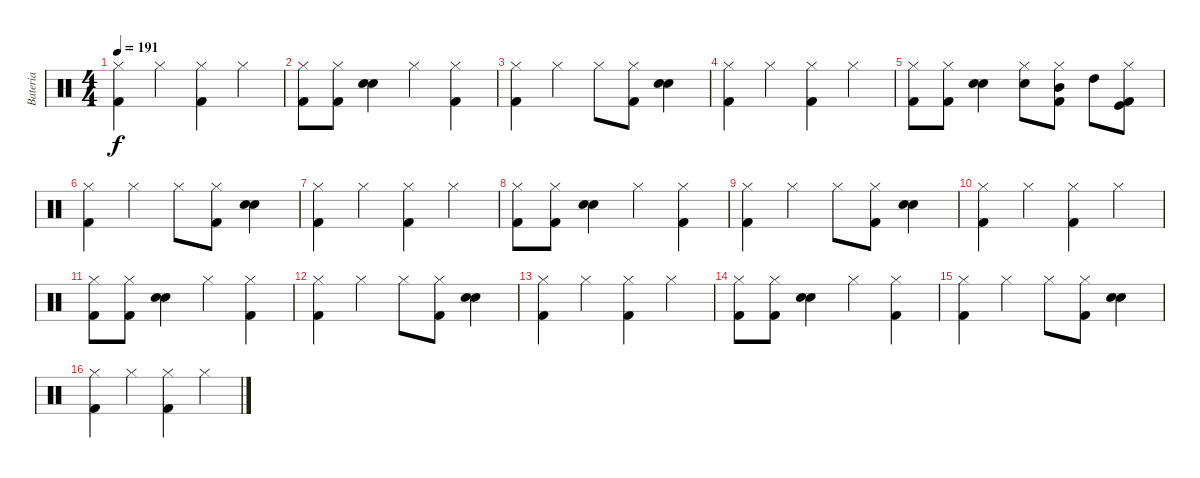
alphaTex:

\track ("Bateria" "Bateria") {instrument percussion}
\staff {score}
\articulation defaults
\ts (4 4)
\tempo 191
\clef neutral
\ks c
("Hi-Hat (closed)" "Kick (hit) 2").4{dy f} "Hi-Hat (closed)".4 ("Hi-Hat (closed)" "Kick (hit) 2").4 "Hi-Hat (closed)".4 |
("Hi-Hat (closed)" "Kick (hit) 2").8 ("Hi-Hat (closed)" "Kick (hit) 2").8 ("Electric Snare (hit)" "Electric Snare (hit)").4 "Hi-Hat (closed)".4 ("Hi-Hat (closed)" "Kick (hit) 2").4 |
("Hi-Hat (closed)" "Kick (hit) 2").4 "Hi-Hat (closed)".4 "Hi-Hat (closed)".8 ("Hi-Hat (closed)" "Kick (hit) 2").8 ("Electric Snare (hit)" "Electric Snare (hit)").4 |
("Hi-Hat (closed)" "Kick (hit) 2").4 "Hi-Hat (closed)".4 ("Hi-Hat (closed)" "Kick (hit) 2").4 "Hi-Hat (closed)".4 |
("Hi-Hat (closed)" "Kick (hit) 2").8 ("Hi-Hat (closed)" "Kick (hit) 2").8 ("Electric Snare (hit)" "Electric Snare (hit)").4 ("Hi-Hat (closed)" "Electric Snare (hit)").8 ("Hi-Hat (closed)" "Mid Tom (hit)" "Kick (hit) 2").8 "High Tom (hit)".8 ("Hi-Hat (closed)" "Kick (hit)" "Kick (hit) 2").8 |
("Hi-Hat (closed)" "Kick (hit) 2").4 "Hi-Hat (closed)".4 "Hi-Hat (closed)".8 ("Hi-Hat (closed)" "Kick (hit) 2").8 ("Electric Snare (hit)" "Electric Snare (hit)").4 |
("Hi-Hat (closed)" "Kick (hit) 2").4 "Hi-Hat (closed)".4 ("Hi-Hat (closed)" "Kick (hit) 2").4 "Hi-Hat (closed)".4 |
("Hi-Hat (closed)" "Kick (hit) 2").8 ("Hi-Hat (closed)" "Kick (hit) 2").8 ("Electric Snare (hit)" "Electric Snare (hit)").4 "Hi-Hat (closed)".4 ("Hi-Hat (closed)" "Kick (hit) 2").4 |
("Hi-Hat (closed)" "Kick (hit) 2").4 "Hi-Hat (closed)".4 "Hi-Hat (closed)".8 ("Hi-Hat (closed)" "Kick (hit) 2").8 ("Electric Snare (hit)" "Electric Snare (hit)").4 |
("Hi-Hat (closed)" "Kick (hit) 2").4 "Hi-Hat (closed)".4 ("Hi-Hat (closed)" "Kick (hit) 2").4 "Hi-Hat (closed)".4 |
("Hi-Hat (closed)" "Kick (hit) 2").8 ("Hi-Hat (closed)" "Kick (hit) 2").8 ("Electric Snare (hit)" "Electric Snare (hit)").4 "Hi-Hat (closed)".4 ("Hi-Hat (closed)" "Kick (hit) 2").4 |
("Hi-Hat (closed)" "Kick (hit) 2").4 "Hi-Hat (closed)".4 "Hi-Hat (closed)".8 ("Hi-Hat (closed)" "Kick (hit) 2").8 ("Electric Snare (hit)" "Electric Snare (hit)").4 |
("Hi-Hat (closed)" "Kick (hit) 2").4 "Hi-Hat (closed)".4 ("Hi-Hat (closed)" "Kick (hit) 2").4 "Hi-Hat (closed)".4 |
("Hi-Hat (closed)" "Kick (hit) 2").8 ("Hi-Hat (closed)" "Kick (hit) 2").8 ("Electric Snare (hit)" "Electric Snare (hit)").4 "Hi-Hat (closed)".4 ("Hi-Hat (closed)" "Kick (hit) 2").4 |
("Hi-Hat (closed)" "Kick (hit) 2").4 "Hi-Hat (closed)".4 "Hi-Hat (closed)".8 ("Hi-Hat (closed)" "Kick (hit) 2").8 ("Electric Snare (hit)" "Electric Snare (hit)").4 |
("Hi-Hat (closed)" "Kick (hit) 2").4 "Hi-Hat (closed)".4 ("Hi-Hat (closed)" "Kick (hit) 2").4 "Hi-Hat (closed)".4
